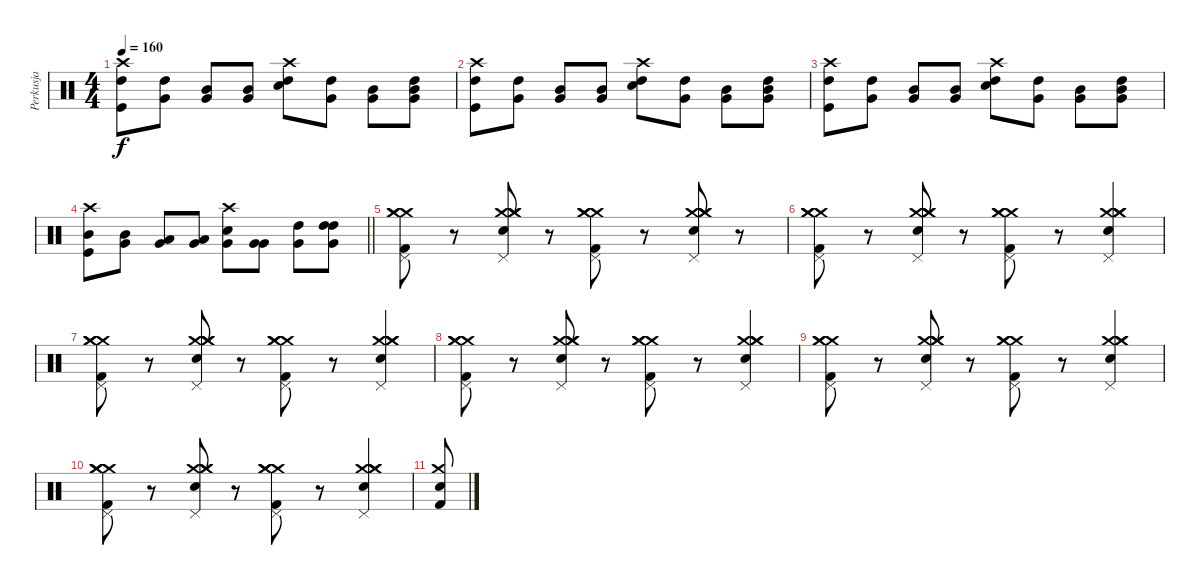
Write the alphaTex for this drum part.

\track ("Perkusja" "Perkusja") {instrument percussion}
\staff {score}
\articulation defaults
\ts (4 4)
\tempo 160
\clef neutral
\ks c
("Crash high (hit)" "Kick (hit)" "High Tom (hit)").8{dy f} ("Very Low Tom (hit)" "High Tom (hit)").8 ("Very Low Tom (hit)" "Mid Tom (hit)").8 ("Very Low Tom (hit)" "Mid Tom (hit)").8 ("Crash high (hit)" "Electric Snare (hit)" "High Tom (hit)").8 ("Very Low Tom (hit)" "High Tom (hit)").8 ("Very Low Tom (hit)" "Mid Tom (hit)").8 ("High Tom (hit)" "Very Low Tom (hit)" "Mid Tom (hit)").8 |
("Crash high (hit)" "Kick (hit)" "High Tom (hit)").8 ("Very Low Tom (hit)" "High Tom (hit)").8 ("Very Low Tom (hit)" "Mid Tom (hit)").8 ("Very Low Tom (hit)" "Mid Tom (hit)").8 ("Crash high (hit)" "Electric Snare (hit)" "High Tom (hit)").8 ("Very Low Tom (hit)" "High Tom (hit)").8 ("Very Low Tom (hit)" "Mid Tom (hit)").8 ("High Tom (hit)" "Very Low Tom (hit)" "Mid Tom (hit)").8 |
("Crash high (hit)" "Kick (hit)" "High Tom (hit)").8 ("Very Low Tom (hit)" "High Tom (hit)").8 ("Very Low Tom (hit)" "Mid Tom (hit)").8 ("Very Low Tom (hit)" "Mid Tom (hit)").8 ("Crash high (hit)" "Electric Snare (hit)" "High Tom (hit)").8 ("Very Low Tom (hit)" "High Tom (hit)").8 ("Very Low Tom (hit)" "Mid Tom (hit)").8 ("High Tom (hit)" "Very Low Tom (hit)" "Mid Tom (hit)").8 |
\barLineRight lightlight
("Crash high (hit)" "Kick (hit)" "Mid Tom (hit)").8 ("Very Low Tom (hit)" "Mid Tom (hit)").8 ("Very Low Tom (hit)" "Low Tom (hit)").8 ("Very Low Tom (hit)" "Low Tom (hit)").8 ("Crash high (hit)" "Electric Snare (hit)" "Very Low Tom (hit)").8 ("Very Low Tom (hit)" "Very Low Tom (hit)").8 ("Very Low Tom (hit)" "High Tom (hit)").8 ("High Tom (hit)" "Very Low Tom (hit)" "High Tom (hit)").8 |
("Pedal Hi-Hat (hit)" "Kick (hit) 2" "Crash medium (hit)" "Crash medium (hit)" "Crash medium (hit)").8 r.8 ("Pedal Hi-Hat (hit)" "Snare (hit) 2" "Crash medium (hit)" "Crash medium (hit)" "Crash medium (hit)").8 r.8 ("Pedal Hi-Hat (hit)" "Kick (hit) 2" "Crash medium (hit)" "Crash medium (hit)" "Crash medium (hit)").8 r.8 ("Pedal Hi-Hat (hit)" "Snare (hit) 2" "Crash medium (hit)" "Crash medium (hit)" "Crash medium (hit)").8 r.8 |
("Pedal Hi-Hat (hit)" "Kick (hit) 2" "Crash medium (hit)" "Crash medium (hit)" "Crash medium (hit)").8 r.8 ("Pedal Hi-Hat (hit)" "Snare (hit) 2" "Crash medium (hit)" "Crash medium (hit)" "Crash medium (hit)").8 r.8 ("Pedal Hi-Hat (hit)" "Kick (hit) 2" "Crash medium (hit)" "Crash medium (hit)" "Crash medium (hit)").8 r.8 ("Pedal Hi-Hat (hit)" "Snare (hit) 2" "Crash medium (hit)" "Crash medium (hit)" "Crash medium (hit)").4 |
("Pedal Hi-Hat (hit)" "Kick (hit) 2" "Crash medium (hit)" "Crash medium (hit)" "Crash medium (hit)").8 r.8 ("Pedal Hi-Hat (hit)" "Snare (hit) 2" "Crash medium (hit)" "Crash medium (hit)" "Crash medium (hit)").8 r.8 ("Pedal Hi-Hat (hit)" "Kick (hit) 2" "Crash medium (hit)" "Crash medium (hit)" "Crash medium (hit)").8 r.8 ("Pedal Hi-Hat (hit)" "Snare (hit) 2" "Crash medium (hit)" "Crash medium (hit)" "Crash medium (hit)").4 |
("Pedal Hi-Hat (hit)" "Kick (hit) 2" "Crash medium (hit)" "Crash medium (hit)" "Crash medium (hit)").8 r.8 ("Pedal Hi-Hat (hit)" "Snare (hit) 2" "Crash medium (hit)" "Crash medium (hit)" "Crash medium (hit)").8 r.8 ("Pedal Hi-Hat (hit)" "Kick (hit) 2" "Crash medium (hit)" "Crash medium (hit)" "Crash medium (hit)").8 r.8 ("Pedal Hi-Hat (hit)" "Snare (hit) 2" "Crash medium (hit)" "Crash medium (hit)" "Crash medium (hit)").4 |
("Pedal Hi-Hat (hit)" "Kick (hit) 2" "Crash medium (hit)" "Crash medium (hit)" "Crash medium (hit)").8 r.8 ("Pedal Hi-Hat (hit)" "Snare (hit) 2" "Crash medium (hit)" "Crash medium (hit)" "Crash medium (hit)").8 r.8 ("Pedal Hi-Hat (hit)" "Kick (hit) 2" "Crash medium (hit)" "Crash medium (hit)" "Crash medium (hit)").8 r.8 ("Pedal Hi-Hat (hit)" "Snare (hit) 2" "Crash medium (hit)" "Crash medium (hit)" "Crash medium (hit)").4 |
("Pedal Hi-Hat (hit)" "Kick (hit) 2" "Crash medium (hit)" "Crash medium (hit)" "Crash medium (hit)").8 r.8 ("Pedal Hi-Hat (hit)" "Snare (hit) 2" "Crash medium (hit)" "Crash medium (hit)" "Crash medium (hit)").8 r.8 ("Pedal Hi-Hat (hit)" "Kick (hit) 2" "Crash medium (hit)" "Crash medium (hit)" "Crash medium (hit)").8 r.8 ("Pedal Hi-Hat (hit)" "Snare (hit) 2" "Crash medium (hit)" "Crash medium (hit)" "Crash medium (hit)").4 |
("Crash medium (hit)" "Kick (hit) 2" "Snare (hit) 2").8
